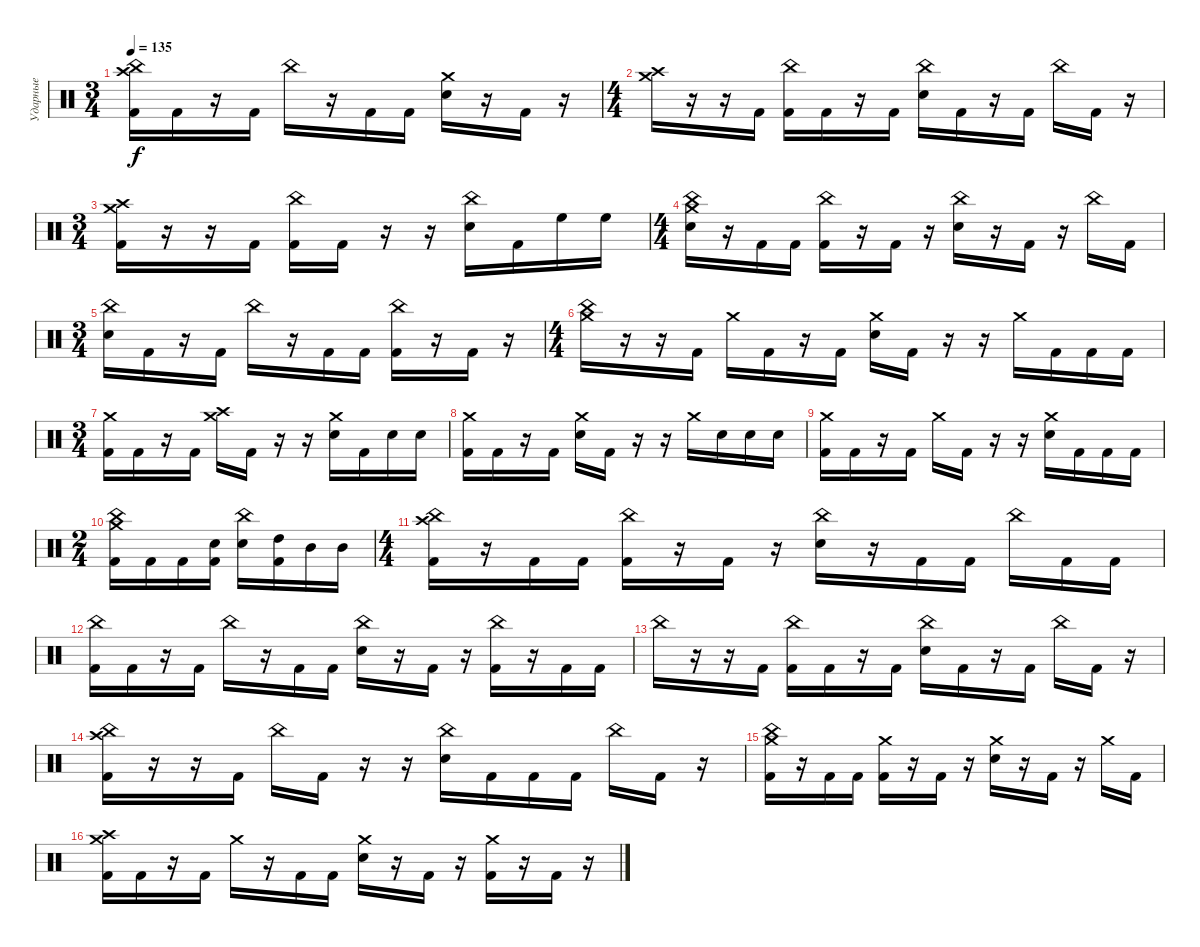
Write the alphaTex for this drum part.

\track ("Ударные" "Ударные") {instrument percussion}
\staff {score}
\articulation defaults
\ts (3 4)
\tempo 135
\clef neutral
\ks c
("China (hit)" "Crash high (hit)" "Kick (hit) 2").16{dy f} "Kick (hit) 2".16 r.16 "Kick (hit) 2".16 "China (hit)".16 r.16 "Kick (hit) 2".16 "Kick (hit) 2".16 ("Crash medium (hit)" "Electric Snare (hit)").16 r.16 "Kick (hit) 2".16 r.16 |
\ts (4 4)
("Crash high (hit)" "Crash medium (hit)").16 r.16 r.16 "Kick (hit) 2".16 ("China (hit)" "Kick (hit) 2").16 "Kick (hit) 2".16 r.16 "Kick (hit) 2".16 ("China (hit)" "Electric Snare (hit)").16 "Kick (hit) 2".16 r.16 "Kick (hit) 2".16 "China (hit)".16 "Kick (hit) 2".16 r.16 |
\ts (3 4)
("Crash high (hit)" "Crash medium (hit)" "Kick (hit) 2").16 r.16 r.16 "Kick (hit) 2".16 ("China (hit)" "Kick (hit) 2").16 "Kick (hit) 2".16 r.16 r.16 ("China (hit)" "Electric Snare (hit)").16 "Kick (hit) 2".16 "High Floor Tom (hit)".16 "High Floor Tom (hit)".16 |
\ts (4 4)
("Crash medium (hit)" "China (hit)" "Electric Snare (hit)").16 r.16 "Kick (hit) 2".16 "Kick (hit) 2".16 ("China (hit)" "Kick (hit) 2").16 r.16 "Kick (hit) 2".16 r.16 ("China (hit)" "Electric Snare (hit)").16 r.16 "Kick (hit) 2".16 r.16 "China (hit)".16 "Kick (hit) 2".16 |
\ts (3 4)
("China (hit)" "Electric Snare (hit)").16 "Kick (hit) 2".16 r.16 "Kick (hit) 2".16 "China (hit)".16 r.16 "Kick (hit) 2".16 "Kick (hit) 2".16 ("China (hit)" "Kick (hit) 2").16 r.16 "Kick (hit) 2".16 r.16 |
\ts (4 4)
("Crash medium (hit)" "China (hit)").16 r.16 r.16 "Kick (hit) 2".16 "Crash medium (hit)".16 "Kick (hit) 2".16 r.16 "Kick (hit) 2".16 ("Crash medium (hit)" "Electric Snare (hit)").16 "Kick (hit) 2".16 r.16 r.16 "Crash medium (hit)".16 "Kick (hit) 2".16 "Kick (hit) 2".16 "Kick (hit) 2".16 |
\ts (3 4)
("Crash medium (hit)" "Kick (hit) 2").16 "Kick (hit) 2".16 r.16 "Kick (hit) 2".16 ("Crash medium (hit)" "Crash high (hit)").16 "Kick (hit) 2".16 r.16 r.16 ("Crash medium (hit)" "Electric Snare (hit)").16 "Kick (hit) 2".16 "Electric Snare (hit)".16 "Electric Snare (hit)".16 |
("Crash medium (hit)" "Kick (hit) 2").16 "Kick (hit) 2".16 r.16 "Kick (hit) 2".16 ("Crash medium (hit)" "Electric Snare (hit)").16 "Kick (hit) 2".16 r.16 r.16 "Crash medium (hit)".16 "Electric Snare (hit)".16 "Electric Snare (hit)".16 "Electric Snare (hit)".16 |
("Crash medium (hit)" "Kick (hit) 2").16 "Kick (hit) 2".16 r.16 "Kick (hit) 2".16 "Crash medium (hit)".16 "Kick (hit) 2".16 r.16 r.16 ("Crash medium (hit)" "Electric Snare (hit)").16 "Kick (hit) 2".16 "Kick (hit) 2".16 "Kick (hit) 2".16 |
\ts (2 4)
("Crash medium (hit)" "China (hit)" "Kick (hit) 2").16 "Kick (hit) 2".16 "Kick (hit) 2".16 ("Metronome (bell)" "Kick (hit) 2").16 ("China (hit)" "Electric Snare (hit)").16 ("High Tom (hit)" "Kick (hit) 2").16 "Mid Tom (hit)".16 "Mid Tom (hit)".16 |
\ts (4 4)
("China (hit)" "Crash high (hit)" "Kick (hit) 2").16 r.16 "Kick (hit) 2".16 "Kick (hit) 2".16 ("China (hit)" "Kick (hit) 2").16 r.16 "Kick (hit) 2".16 r.16 ("China (hit)" "Electric Snare (hit)").16 r.16 "Kick (hit) 2".16 "Kick (hit) 2".16 "China (hit)".16 "Kick (hit) 2".16 "Kick (hit) 2".16 |
("China (hit)" "Kick (hit) 2").16 "Kick (hit) 2".16 r.16 "Kick (hit) 2".16 "China (hit)".16 r.16 "Kick (hit) 2".16 "Kick (hit) 2".16 ("China (hit)" "Electric Snare (hit)").16 r.16 "Kick (hit) 2".16 r.16 ("China (hit)" "Kick (hit) 2").16 r.16 "Kick (hit) 2".16 "Kick (hit) 2".16 |
"China (hit)".16 r.16 r.16 "Kick (hit) 2".16 ("China (hit)" "Kick (hit) 2").16 "Kick (hit) 2".16 r.16 "Kick (hit) 2".16 ("China (hit)" "Electric Snare (hit)").16 "Kick (hit) 2".16 r.16 "Kick (hit) 2".16 "China (hit)".16 "Kick (hit) 2".16 r.16 |
("China (hit)" "Crash high (hit)" "Kick (hit) 2").16 r.16 r.16 "Kick (hit) 2".16 "China (hit)".16 "Kick (hit) 2".16 r.16 r.16 ("China (hit)" "Electric Snare (hit)").16 "Kick (hit) 2".16 "Kick (hit) 2".16 "Kick (hit) 2".16 "China (hit)".16 "Kick (hit) 2".16 r.16 |
("Crash medium (hit)" "China (hit)" "Kick (hit) 2").16 r.16 "Kick (hit) 2".16 "Kick (hit) 2".16 ("Crash medium (hit)" "Kick (hit) 2").16 r.16 "Kick (hit) 2".16 r.16 ("Crash medium (hit)" "Electric Snare (hit)").16 r.16 "Kick (hit) 2".16 r.16 "Crash medium (hit)".16 "Kick (hit) 2".16 |
("Crash medium (hit)" "Crash high (hit)" "Kick (hit) 2").16 "Kick (hit) 2".16 r.16 "Kick (hit) 2".16 "Crash medium (hit)".16 r.16 "Kick (hit) 2".16 "Kick (hit) 2".16 ("Crash medium (hit)" "Electric Snare (hit)").16 r.16 "Kick (hit) 2".16 r.16 ("Crash medium (hit)" "Kick (hit) 2").16 r.16 "Kick (hit) 2".16 r.16
